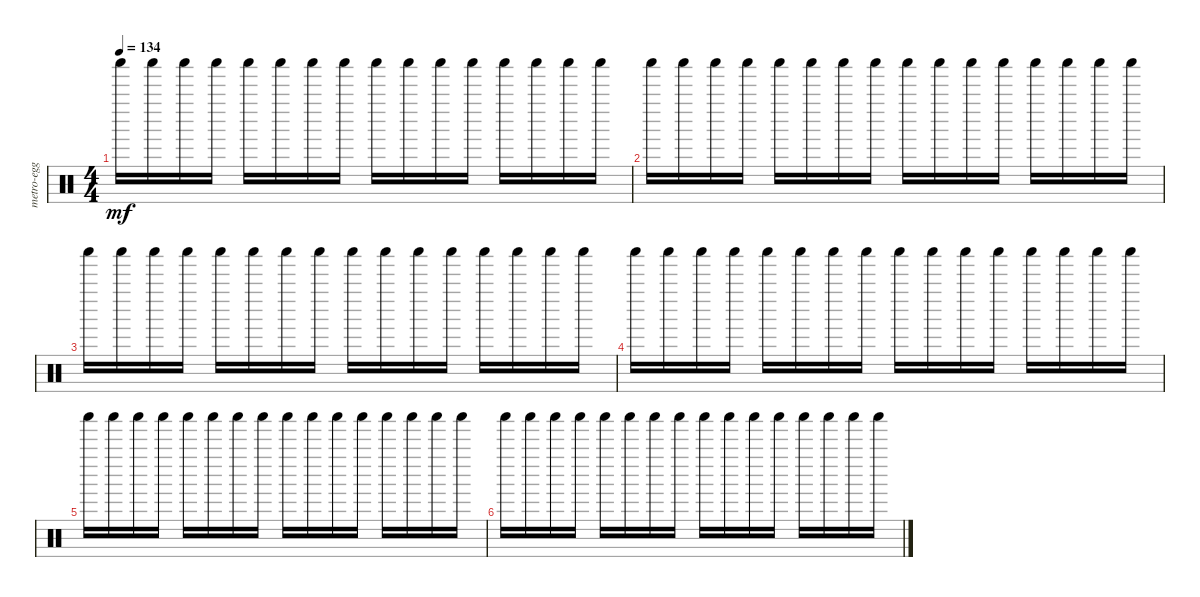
\track ("metro-egg" "metro-egg") {instrument percussion}
\staff {score}
\articulation defaults
\ts (4 4)
\tempo 134
\clef neutral
\ks c "Shaker (hit)".16{dy mf} "Shaker (hit)".16 "Shaker (hit)".16 "Shaker (hit)".16 "Shaker (hit)".16 "Shaker (hit)".16 "Shaker (hit)".16 "Shaker (hit)".16 "Shaker (hit)".16 "Shaker (hit)".16 "Shaker (hit)".16 "Shaker (hit)".16 "Shaker (hit)".16 "Shaker (hit)".16 "Shaker (hit)".16 "Shaker (hit)".16
|
"Shaker (hit)".16 "Shaker (hit)".16 "Shaker (hit)".16 "Shaker (hit)".16 "Shaker (hit)".16 "Shaker (hit)".16 "Shaker (hit)".16 "Shaker (hit)".16 "Shaker (hit)".16 "Shaker (hit)".16 "Shaker (hit)".16 "Shaker (hit)".16 "Shaker (hit)".16 "Shaker (hit)".16 "Shaker (hit)".16 "Shaker (hit)".16 |
"Shaker (hit)".16 "Shaker (hit)".16 "Shaker (hit)".16 "Shaker (hit)".16 "Shaker (hit)".16 "Shaker (hit)".16 "Shaker (hit)".16 "Shaker (hit)".16 "Shaker (hit)".16 "Shaker (hit)".16 "Shaker (hit)".16 "Shaker (hit)".16 "Shaker (hit)".16 "Shaker (hit)".16 "Shaker (hit)".16 "Shaker (hit)".16 |
"Shaker (hit)".16 "Shaker (hit)".16 "Shaker (hit)".16 "Shaker (hit)".16 "Shaker (hit)".16 "Shaker (hit)".16 "Shaker (hit)".16 "Shaker (hit)".16 "Shaker (hit)".16 "Shaker (hit)".16 "Shaker (hit)".16 "Shaker (hit)".16 "Shaker (hit)".16 "Shaker (hit)".16 "Shaker (hit)".16 "Shaker (hit)".16 |
"Shaker (hit)".16 "Shaker (hit)".16 "Shaker (hit)".16 "Shaker (hit)".16 "Shaker (hit)".16 "Shaker (hit)".16 "Shaker (hit)".16 "Shaker (hit)".16 "Shaker (hit)".16 "Shaker (hit)".16 "Shaker (hit)".16 "Shaker (hit)".16 "Shaker (hit)".16 "Shaker (hit)".16 "Shaker (hit)".16 "Shaker (hit)".16 |
"Shaker (hit)".16 "Shaker (hit)".16 "Shaker (hit)".16 "Shaker (hit)".16 "Shaker (hit)".16 "Shaker (hit)".16 "Shaker (hit)".16 "Shaker (hit)".16 "Shaker (hit)".16 "Shaker (hit)".16 "Shaker (hit)".16 "Shaker (hit)".16 "Shaker (hit)".16 "Shaker (hit)".16 "Shaker (hit)".16 "Shaker (hit)".16
